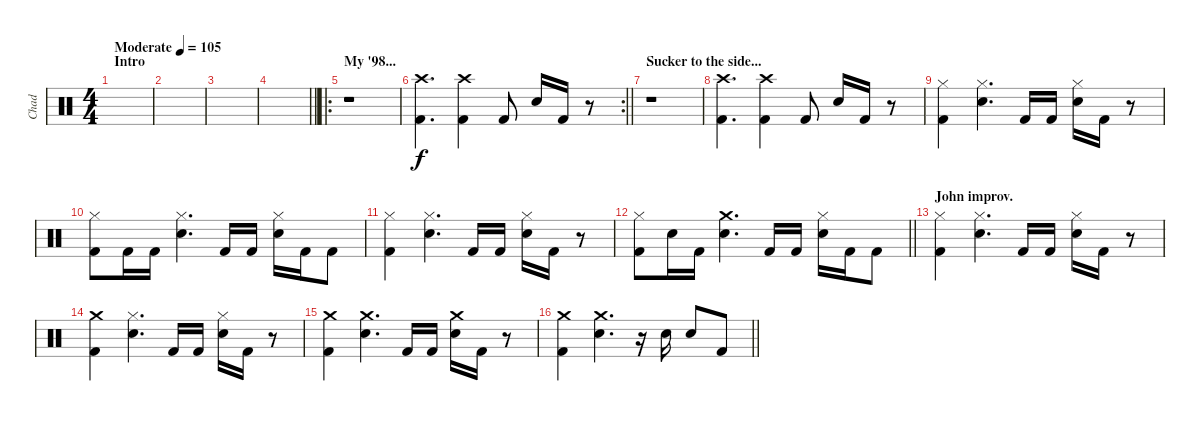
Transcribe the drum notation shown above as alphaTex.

\track ("Chad" "Chad") {instrument percussion}
\staff {score}
\articulation defaults
\ts (4 4)
\section ("" "Intro")
\tempo (105 "Moderate")
\clef neutral
\ks c
|
|
|
\barLineRight lightlight
|
\ro
\section ("" "My '98...")
r.1 |
\rc 2
\barLineRight lightlight
("Crash high (hit)" "Kick (hit) 2").4{d} ("Crash high (hit)" "Kick (hit) 2").4 "Kick (hit) 2".8 "Electric Snare (hit)".16 "Kick (hit) 2".16 r.8 |
\section ("" "Sucker to the side...")
r.1 |
("Crash high (hit)" "Kick (hit) 2").4{d} ("Crash high (hit)" "Kick (hit) 2").4 "Kick (hit) 2".8 "Electric Snare (hit)".16 "Kick (hit) 2".16 r.8 |
("Hi-Hat (closed)" "Kick (hit) 2").4 ("Hi-Hat (closed)" "Electric Snare (hit)").4{d} "Kick (hit) 2".16 "Kick (hit) 2".16 ("Hi-Hat (closed)" "Electric Snare (hit)").16 "Kick (hit) 2".16 r.8 |
("Hi-Hat (closed)" "Kick (hit) 2").8 "Kick (hit) 2".16 "Kick (hit) 2".16 ("Hi-Hat (closed)" "Electric Snare (hit)").4{d} "Kick (hit) 2".16 "Kick (hit) 2".16 ("Hi-Hat (closed)" "Electric Snare (hit)").16 "Kick (hit) 2".16 "Kick (hit) 2".8 |
("Hi-Hat (closed)" "Kick (hit) 2").4 ("Hi-Hat (closed)" "Electric Snare (hit)").4{d} "Kick (hit) 2".16 "Kick (hit) 2".16 ("Hi-Hat (closed)" "Electric Snare (hit)").16 "Kick (hit) 2".16 r.8 |
\barLineRight lightlight
("Hi-Hat (closed)" "Kick (hit) 2").8 "Electric Snare (hit)".16 "Kick (hit) 2".16 ("Crash medium (hit)" "Electric Snare (hit)").4{d} "Kick (hit) 2".16 "Kick (hit) 2".16 ("Hi-Hat (closed)" "Electric Snare (hit)").16 "Kick (hit) 2".16 "Kick (hit) 2".8 |
\section ("" "John improv.")
("Hi-Hat (closed)" "Kick (hit) 2").4 ("Hi-Hat (closed)" "Electric Snare (hit)").4{d} "Kick (hit) 2".16 "Kick (hit) 2".16 ("Hi-Hat (closed)" "Electric Snare (hit)").16 "Kick (hit) 2".16 r.8 |
("Crash medium (hit)" "Kick (hit) 2").4 ("Hi-Hat (closed)" "Electric Snare (hit)").4{d} "Kick (hit) 2".16 "Kick (hit) 2".16 ("Hi-Hat (closed)" "Electric Snare (hit)").16 "Kick (hit) 2".16 r.8 |
("Crash medium (hit)" "Kick (hit) 2").4 ("Crash medium (hit)" "Electric Snare (hit)").4{d} "Kick (hit) 2".16 "Kick (hit) 2".16 ("Crash medium (hit)" "Electric Snare (hit)").16 "Kick (hit) 2".16 r.8 |
\barLineRight lightlight
("Crash medium (hit)" "Kick (hit) 2").4 ("Crash medium (hit)" "Electric Snare (hit)").4{d} r.16 "Electric Snare (hit)".16 "Electric Snare (hit)".8 "Kick (hit) 2".8
